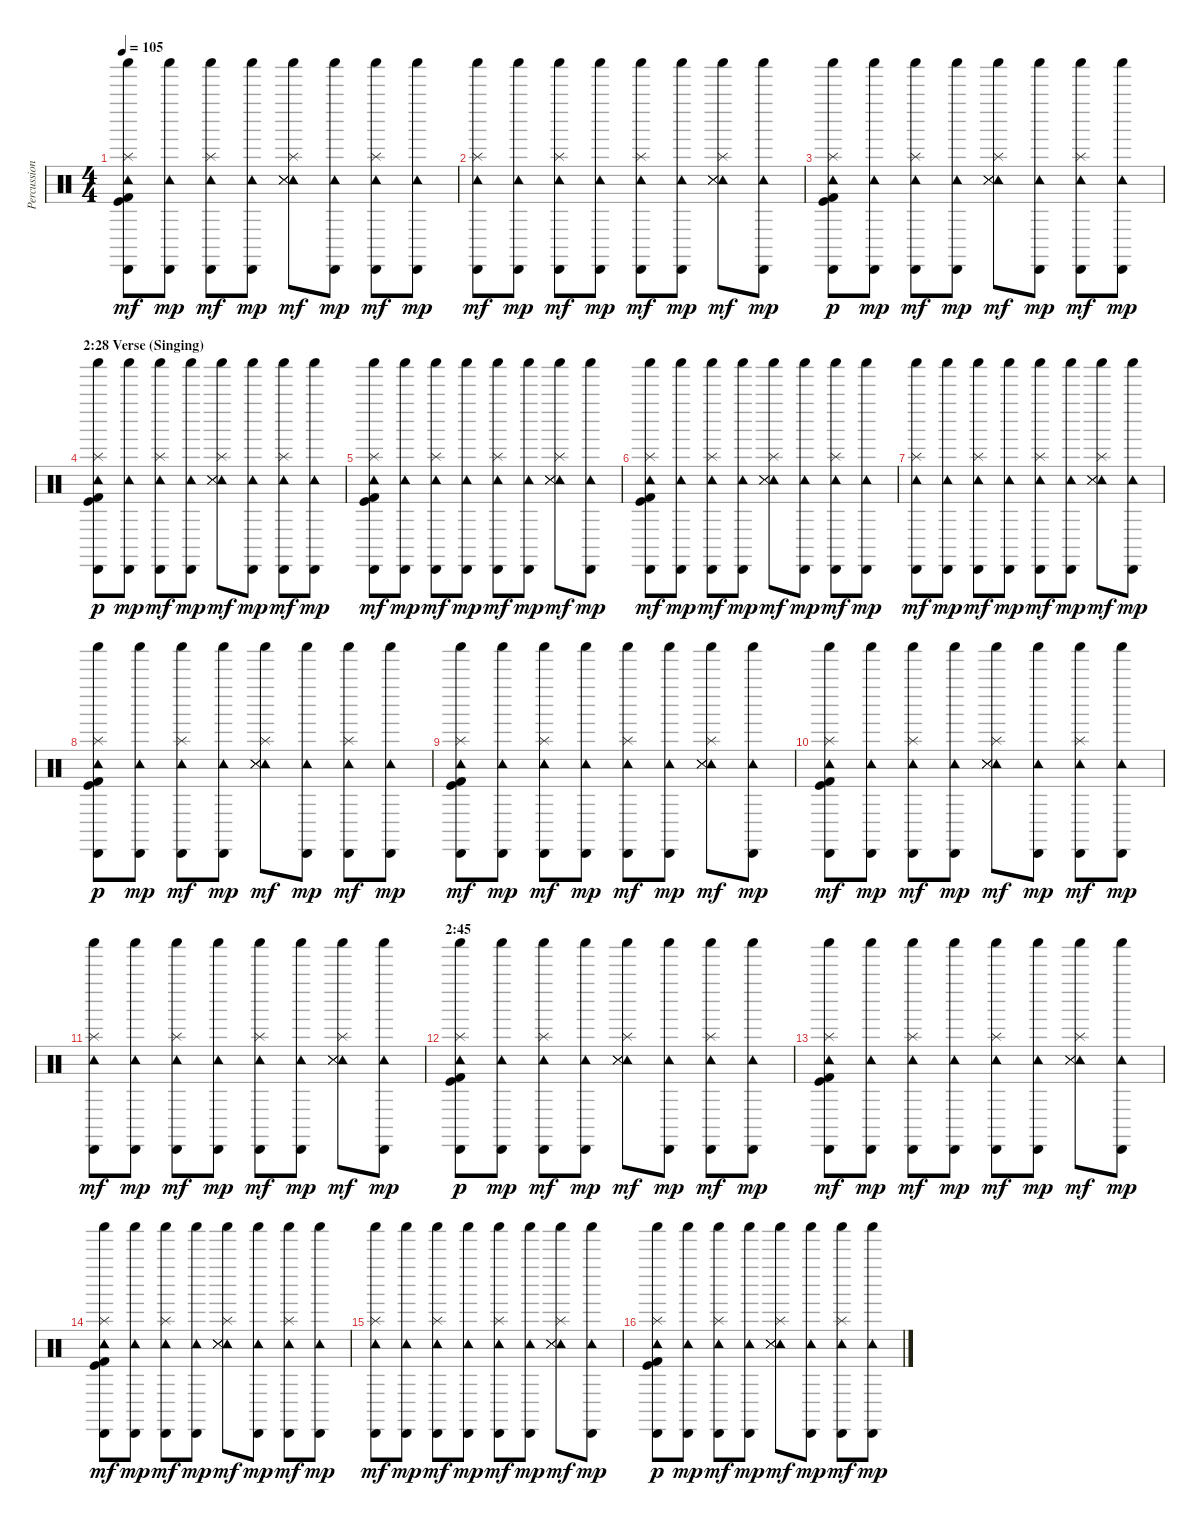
\track ("Percussion (Ian Paice)" "Percussion") {instrument percussion}
\staff {score}
\articulation defaults
\ts (4 4)
\tempo 105
\clef neutral
\ks c
("Shaker (hit)" "Tambourine (hit)" "Cabasa (hit)" "Kick (hit)" "Kick (hit) 2" "Splash (hit)").8{dy mf} ("Shaker (hit)" "Tambourine (hit)" "Cabasa (hit)").8{dy mp} ("Shaker (hit)" "Tambourine (hit)" "Cabasa (hit)" "Splash (hit)").8{dy mf} ("Shaker (hit)" "Tambourine (hit)" "Cabasa (hit)").8{dy mp} ("Shaker (hit)" "Tambourine (hit)" "Snare (side stick) 3" "Snare (side stick) 3" "Snare (side stick) 3" "Splash (hit)").8{dy mf} ("Shaker (hit)" "Tambourine (hit)" "Cabasa (hit)").8{dy mp} ("Shaker (hit)" "Tambourine (hit)" "Cabasa (hit)" "Splash (hit)").8{dy mf} ("Shaker (hit)" "Tambourine (hit)" "Cabasa (hit)").8{dy mp} |
("Shaker (hit)" "Tambourine (hit)" "Cabasa (hit)" "Splash (hit)").8{dy mf} ("Shaker (hit)" "Tambourine (hit)" "Cabasa (hit)").8{dy mp} ("Shaker (hit)" "Tambourine (hit)" "Cabasa (hit)" "Splash (hit)").8{dy mf} ("Shaker (hit)" "Tambourine (hit)" "Cabasa (hit)").8{dy mp} ("Shaker (hit)" "Tambourine (hit)" "Cabasa (hit)" "Splash (hit)").8{dy mf} ("Shaker (hit)" "Tambourine (hit)" "Cabasa (hit)").8{dy mp} ("Shaker (hit)" "Tambourine (hit)" "Snare (side stick) 3" "Snare (side stick) 3" "Snare (side stick) 3" "Splash (hit)").8{dy mf} ("Shaker (hit)" "Tambourine (hit)" "Cabasa (hit)").8{dy mp} |
("Shaker (hit)" "Tambourine (hit)" "Cabasa (hit)" "Kick (hit)" "Kick (hit) 2" "Splash (hit)").8{dy p} ("Shaker (hit)" "Tambourine (hit)" "Cabasa (hit)").8{dy mp} ("Shaker (hit)" "Tambourine (hit)" "Cabasa (hit)" "Splash (hit)").8{dy mf} ("Shaker (hit)" "Tambourine (hit)" "Cabasa (hit)").8{dy mp} ("Shaker (hit)" "Tambourine (hit)" "Snare (side stick) 3" "Snare (side stick) 3" "Snare (side stick) 3" "Splash (hit)").8{dy mf} ("Shaker (hit)" "Tambourine (hit)" "Cabasa (hit)").8{dy mp} ("Shaker (hit)" "Tambourine (hit)" "Cabasa (hit)" "Splash (hit)").8{dy mf} ("Shaker (hit)" "Tambourine (hit)" "Cabasa (hit)").8{dy mp} |
\section ("" "2:28 Verse (Singing)")
("Shaker (hit)" "Tambourine (hit)" "Cabasa (hit)" "Kick (hit)" "Kick (hit) 2" "Splash (hit)").8{dy p} ("Shaker (hit)" "Tambourine (hit)" "Cabasa (hit)").8{dy mp} ("Shaker (hit)" "Tambourine (hit)" "Cabasa (hit)" "Splash (hit)").8{dy mf} ("Shaker (hit)" "Tambourine (hit)" "Cabasa (hit)").8{dy mp} ("Shaker (hit)" "Tambourine (hit)" "Snare (side stick) 3" "Snare (side stick) 3" "Snare (side stick) 3" "Splash (hit)").8{dy mf} ("Shaker (hit)" "Tambourine (hit)" "Cabasa (hit)").8{dy mp} ("Shaker (hit)" "Tambourine (hit)" "Cabasa (hit)" "Splash (hit)").8{dy mf} ("Shaker (hit)" "Tambourine (hit)" "Cabasa (hit)").8{dy mp} |
("Shaker (hit)" "Tambourine (hit)" "Cabasa (hit)" "Kick (hit)" "Kick (hit) 2" "Splash (hit)").8{dy mf} ("Shaker (hit)" "Tambourine (hit)" "Cabasa (hit)").8{dy mp} ("Shaker (hit)" "Tambourine (hit)" "Cabasa (hit)" "Splash (hit)").8{dy mf} ("Shaker (hit)" "Tambourine (hit)" "Cabasa (hit)").8{dy mp} ("Shaker (hit)" "Tambourine (hit)" "Cabasa (hit)" "Splash (hit)").8{dy mf} ("Shaker (hit)" "Tambourine (hit)" "Cabasa (hit)").8{dy mp} ("Shaker (hit)" "Tambourine (hit)" "Snare (side stick) 3" "Snare (side stick) 3" "Snare (side stick) 3" "Splash (hit)").8{dy mf} ("Shaker (hit)" "Tambourine (hit)" "Cabasa (hit)").8{dy mp} |
("Shaker (hit)" "Tambourine (hit)" "Cabasa (hit)" "Kick (hit)" "Kick (hit) 2" "Splash (hit)").8{dy mf} ("Shaker (hit)" "Tambourine (hit)" "Cabasa (hit)").8{dy mp} ("Shaker (hit)" "Tambourine (hit)" "Cabasa (hit)" "Splash (hit)").8{dy mf} ("Shaker (hit)" "Tambourine (hit)" "Cabasa (hit)").8{dy mp} ("Shaker (hit)" "Tambourine (hit)" "Snare (side stick) 3" "Snare (side stick) 3" "Snare (side stick) 3" "Splash (hit)").8{dy mf} ("Shaker (hit)" "Tambourine (hit)" "Cabasa (hit)").8{dy mp} ("Shaker (hit)" "Tambourine (hit)" "Cabasa (hit)" "Splash (hit)").8{dy mf} ("Shaker (hit)" "Tambourine (hit)" "Cabasa (hit)").8{dy mp} |
("Shaker (hit)" "Tambourine (hit)" "Cabasa (hit)" "Splash (hit)").8{dy mf} ("Shaker (hit)" "Tambourine (hit)" "Cabasa (hit)").8{dy mp} ("Shaker (hit)" "Tambourine (hit)" "Cabasa (hit)" "Splash (hit)").8{dy mf} ("Shaker (hit)" "Tambourine (hit)" "Cabasa (hit)").8{dy mp} ("Shaker (hit)" "Tambourine (hit)" "Cabasa (hit)" "Splash (hit)").8{dy mf} ("Shaker (hit)" "Tambourine (hit)" "Cabasa (hit)").8{dy mp} ("Shaker (hit)" "Tambourine (hit)" "Snare (side stick) 3" "Snare (side stick) 3" "Snare (side stick) 3" "Splash (hit)").8{dy mf} ("Shaker (hit)" "Tambourine (hit)" "Cabasa (hit)").8{dy mp} |
("Shaker (hit)" "Tambourine (hit)" "Cabasa (hit)" "Kick (hit)" "Kick (hit) 2" "Splash (hit)").8{dy p} ("Shaker (hit)" "Tambourine (hit)" "Cabasa (hit)").8{dy mp} ("Shaker (hit)" "Tambourine (hit)" "Cabasa (hit)" "Splash (hit)").8{dy mf} ("Shaker (hit)" "Tambourine (hit)" "Cabasa (hit)").8{dy mp} ("Shaker (hit)" "Tambourine (hit)" "Snare (side stick) 3" "Snare (side stick) 3" "Snare (side stick) 3" "Splash (hit)").8{dy mf} ("Shaker (hit)" "Tambourine (hit)" "Cabasa (hit)").8{dy mp} ("Shaker (hit)" "Tambourine (hit)" "Cabasa (hit)" "Splash (hit)").8{dy mf} ("Shaker (hit)" "Tambourine (hit)" "Cabasa (hit)").8{dy mp} |
("Shaker (hit)" "Tambourine (hit)" "Cabasa (hit)" "Kick (hit)" "Kick (hit) 2" "Splash (hit)").8{dy mf} ("Shaker (hit)" "Tambourine (hit)" "Cabasa (hit)").8{dy mp} ("Shaker (hit)" "Tambourine (hit)" "Cabasa (hit)" "Splash (hit)").8{dy mf} ("Shaker (hit)" "Tambourine (hit)" "Cabasa (hit)").8{dy mp} ("Shaker (hit)" "Tambourine (hit)" "Cabasa (hit)" "Splash (hit)").8{dy mf} ("Shaker (hit)" "Tambourine (hit)" "Cabasa (hit)").8{dy mp} ("Shaker (hit)" "Tambourine (hit)" "Snare (side stick) 3" "Snare (side stick) 3" "Snare (side stick) 3" "Splash (hit)").8{dy mf} ("Shaker (hit)" "Tambourine (hit)" "Cabasa (hit)").8{dy mp} |
("Shaker (hit)" "Tambourine (hit)" "Cabasa (hit)" "Kick (hit)" "Kick (hit) 2" "Splash (hit)").8{dy mf} ("Shaker (hit)" "Tambourine (hit)" "Cabasa (hit)").8{dy mp} ("Shaker (hit)" "Tambourine (hit)" "Cabasa (hit)" "Splash (hit)").8{dy mf} ("Shaker (hit)" "Tambourine (hit)" "Cabasa (hit)").8{dy mp} ("Shaker (hit)" "Tambourine (hit)" "Snare (side stick) 3" "Snare (side stick) 3" "Snare (side stick) 3" "Splash (hit)").8{dy mf} ("Shaker (hit)" "Tambourine (hit)" "Cabasa (hit)").8{dy mp} ("Shaker (hit)" "Tambourine (hit)" "Cabasa (hit)" "Splash (hit)").8{dy mf} ("Shaker (hit)" "Tambourine (hit)" "Cabasa (hit)").8{dy mp} |
("Shaker (hit)" "Tambourine (hit)" "Cabasa (hit)" "Splash (hit)").8{dy mf} ("Shaker (hit)" "Tambourine (hit)" "Cabasa (hit)").8{dy mp} ("Shaker (hit)" "Tambourine (hit)" "Cabasa (hit)" "Splash (hit)").8{dy mf} ("Shaker (hit)" "Tambourine (hit)" "Cabasa (hit)").8{dy mp} ("Shaker (hit)" "Tambourine (hit)" "Cabasa (hit)" "Splash (hit)").8{dy mf} ("Shaker (hit)" "Tambourine (hit)" "Cabasa (hit)").8{dy mp} ("Shaker (hit)" "Tambourine (hit)" "Snare (side stick) 3" "Snare (side stick) 3" "Snare (side stick) 3" "Splash (hit)").8{dy mf} ("Shaker (hit)" "Tambourine (hit)" "Cabasa (hit)").8{dy mp} |
\section ("" "2:45")
("Shaker (hit)" "Tambourine (hit)" "Cabasa (hit)" "Kick (hit)" "Kick (hit) 2" "Splash (hit)").8{dy p} ("Shaker (hit)" "Tambourine (hit)" "Cabasa (hit)").8{dy mp} ("Shaker (hit)" "Tambourine (hit)" "Cabasa (hit)" "Splash (hit)").8{dy mf} ("Shaker (hit)" "Tambourine (hit)" "Cabasa (hit)").8{dy mp} ("Shaker (hit)" "Tambourine (hit)" "Snare (side stick) 3" "Snare (side stick) 3" "Snare (side stick) 3" "Splash (hit)").8{dy mf} ("Shaker (hit)" "Tambourine (hit)" "Cabasa (hit)").8{dy mp} ("Shaker (hit)" "Tambourine (hit)" "Cabasa (hit)" "Splash (hit)").8{dy mf} ("Shaker (hit)" "Tambourine (hit)" "Cabasa (hit)").8{dy mp} |
("Shaker (hit)" "Tambourine (hit)" "Cabasa (hit)" "Kick (hit)" "Kick (hit) 2" "Splash (hit)").8{dy mf} ("Shaker (hit)" "Tambourine (hit)" "Cabasa (hit)").8{dy mp} ("Shaker (hit)" "Tambourine (hit)" "Cabasa (hit)" "Splash (hit)").8{dy mf} ("Shaker (hit)" "Tambourine (hit)" "Cabasa (hit)").8{dy mp} ("Shaker (hit)" "Tambourine (hit)" "Cabasa (hit)" "Splash (hit)").8{dy mf} ("Shaker (hit)" "Tambourine (hit)" "Cabasa (hit)").8{dy mp} ("Shaker (hit)" "Tambourine (hit)" "Snare (side stick) 3" "Snare (side stick) 3" "Snare (side stick) 3" "Splash (hit)").8{dy mf} ("Shaker (hit)" "Tambourine (hit)" "Cabasa (hit)").8{dy mp} |
("Shaker (hit)" "Tambourine (hit)" "Cabasa (hit)" "Kick (hit)" "Kick (hit) 2" "Splash (hit)").8{dy mf} ("Shaker (hit)" "Tambourine (hit)" "Cabasa (hit)").8{dy mp} ("Shaker (hit)" "Tambourine (hit)" "Cabasa (hit)" "Splash (hit)").8{dy mf} ("Shaker (hit)" "Tambourine (hit)" "Cabasa (hit)").8{dy mp} ("Shaker (hit)" "Tambourine (hit)" "Snare (side stick) 3" "Snare (side stick) 3" "Snare (side stick) 3" "Splash (hit)").8{dy mf} ("Shaker (hit)" "Tambourine (hit)" "Cabasa (hit)").8{dy mp} ("Shaker (hit)" "Tambourine (hit)" "Cabasa (hit)" "Splash (hit)").8{dy mf} ("Shaker (hit)" "Tambourine (hit)" "Cabasa (hit)").8{dy mp} |
("Shaker (hit)" "Tambourine (hit)" "Cabasa (hit)" "Splash (hit)").8{dy mf} ("Shaker (hit)" "Tambourine (hit)" "Cabasa (hit)").8{dy mp} ("Shaker (hit)" "Tambourine (hit)" "Cabasa (hit)" "Splash (hit)").8{dy mf} ("Shaker (hit)" "Tambourine (hit)" "Cabasa (hit)").8{dy mp} ("Shaker (hit)" "Tambourine (hit)" "Cabasa (hit)" "Splash (hit)").8{dy mf} ("Shaker (hit)" "Tambourine (hit)" "Cabasa (hit)").8{dy mp} ("Shaker (hit)" "Tambourine (hit)" "Snare (side stick) 3" "Snare (side stick) 3" "Snare (side stick) 3" "Splash (hit)").8{dy mf} ("Shaker (hit)" "Tambourine (hit)" "Cabasa (hit)").8{dy mp} |
("Shaker (hit)" "Tambourine (hit)" "Cabasa (hit)" "Kick (hit)" "Kick (hit) 2" "Splash (hit)").8{dy p} ("Shaker (hit)" "Tambourine (hit)" "Cabasa (hit)").8{dy mp} ("Shaker (hit)" "Tambourine (hit)" "Cabasa (hit)" "Splash (hit)").8{dy mf} ("Shaker (hit)" "Tambourine (hit)" "Cabasa (hit)").8{dy mp} ("Shaker (hit)" "Tambourine (hit)" "Snare (side stick) 3" "Snare (side stick) 3" "Snare (side stick) 3" "Splash (hit)").8{dy mf} ("Shaker (hit)" "Tambourine (hit)" "Cabasa (hit)").8{dy mp} ("Shaker (hit)" "Tambourine (hit)" "Cabasa (hit)" "Splash (hit)").8{dy mf} ("Shaker (hit)" "Tambourine (hit)" "Cabasa (hit)").8{dy mp}
